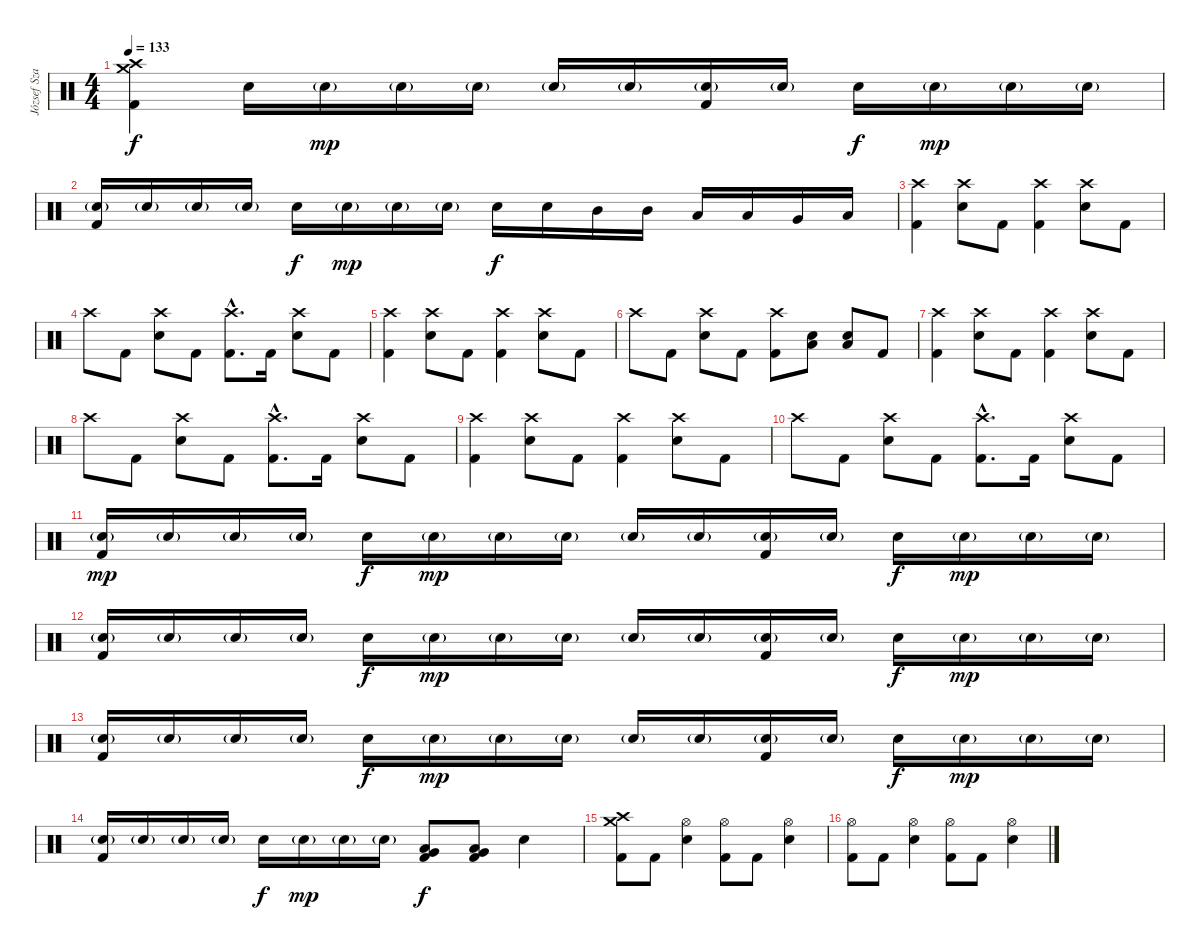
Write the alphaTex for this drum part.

\track ("József Szakács (Drums)" "József Sza") {instrument percussion}
\staff {score}
\articulation defaults
\ts (4 4)
\tempo 133
\clef neutral
\ks c
("Crash medium (hit)" "Crash high (hit)" "Kick (hit) 2").4{dy f} "Snare (hit) 2".16 "Snare (hit) 2"{g}.16{dy mp} "Snare (hit) 2"{g}.16 "Snare (hit) 2"{g}.16 "Snare (hit) 2"{g}.16 "Snare (hit) 2"{g}.16 ("Snare (hit) 2"{g} "Kick (hit) 2").16 "Snare (hit) 2"{g}.16 "Snare (hit) 2".16{dy f} "Snare (hit) 2"{g}.16{dy mp} "Snare (hit) 2"{g}.16 "Snare (hit) 2"{g}.16 |
("Snare (hit) 2"{g} "Kick (hit) 2").16 "Snare (hit) 2"{g}.16 "Snare (hit) 2"{g}.16 "Snare (hit) 2"{g}.16 "Snare (hit) 2".16{dy f} "Snare (hit) 2"{g}.16{dy mp} "Snare (hit) 2"{g}.16 "Snare (hit) 2"{g}.16 "Snare (hit) 2".16{dy f} "Snare (hit) 2".16 "Mid Tom (hit)".16 "Mid Tom (hit)".16 "Low Tom (hit)".16 "Low Tom (hit)".16 "Very Low Tom (hit)".16 "Low Floor Tom (hit)".16 |
("Crash high (hit)" "Kick (hit) 2").4 ("Crash high (hit)" "Snare (hit) 2").8 "Kick (hit) 2".8 ("Crash high (hit)" "Kick (hit) 2").4 ("Crash high (hit)" "Snare (hit) 2").8 "Kick (hit) 2".8 |
"Crash high (hit)".8 "Kick (hit) 2".8 ("Crash high (hit)" "Snare (hit) 2").8 "Kick (hit) 2".8 ("Crash high (hit)"{hac} "Kick (hit) 2"{hac}).8{d} "Kick (hit) 2".16 ("Crash high (hit)" "Snare (hit) 2").8 "Kick (hit) 2".8 |
("Crash high (hit)" "Kick (hit) 2").4 ("Crash high (hit)" "Snare (hit) 2").8 "Kick (hit) 2".8 ("Crash high (hit)" "Kick (hit) 2").4 ("Crash high (hit)" "Snare (hit) 2").8 "Kick (hit) 2".8 |
"Crash high (hit)".8 "Kick (hit) 2".8 ("Crash high (hit)" "Snare (hit) 2").8 "Kick (hit) 2".8 ("Crash high (hit)" "Kick (hit) 2").8 ("Low Floor Tom (hit)" "Snare (hit) 2").8 ("Low Floor Tom (hit)" "Snare (hit) 2").8 "Kick (hit) 2".8 |
("Crash high (hit)" "Kick (hit) 2").4 ("Crash high (hit)" "Snare (hit) 2").8 "Kick (hit) 2".8 ("Crash high (hit)" "Kick (hit) 2").4 ("Crash high (hit)" "Snare (hit) 2").8 "Kick (hit) 2".8 |
"Crash high (hit)".8 "Kick (hit) 2".8 ("Crash high (hit)" "Snare (hit) 2").8 "Kick (hit) 2".8 ("Crash high (hit)"{hac} "Kick (hit) 2"{hac}).8{d} "Kick (hit) 2".16 ("Crash high (hit)" "Snare (hit) 2").8 "Kick (hit) 2".8 |
("Crash high (hit)" "Kick (hit) 2").4 ("Crash high (hit)" "Snare (hit) 2").8 "Kick (hit) 2".8 ("Crash high (hit)" "Kick (hit) 2").4 ("Crash high (hit)" "Snare (hit) 2").8 "Kick (hit) 2".8 |
"Crash high (hit)".8 "Kick (hit) 2".8 ("Crash high (hit)" "Snare (hit) 2").8 "Kick (hit) 2".8 ("Crash high (hit)"{hac} "Kick (hit) 2"{hac}).8{d} "Kick (hit) 2".16 ("Crash high (hit)" "Snare (hit) 2").8 "Kick (hit) 2".8 |
("Snare (hit) 2"{g} "Kick (hit) 2").16{dy mp} "Snare (hit) 2"{g}.16 "Snare (hit) 2"{g}.16 "Snare (hit) 2"{g}.16 "Snare (hit) 2".16{dy f} "Snare (hit) 2"{g}.16{dy mp} "Snare (hit) 2"{g}.16 "Snare (hit) 2"{g}.16 "Snare (hit) 2"{g}.16 "Snare (hit) 2"{g}.16 ("Snare (hit) 2"{g} "Kick (hit) 2").16 "Snare (hit) 2"{g}.16 "Snare (hit) 2".16{dy f} "Snare (hit) 2"{g}.16{dy mp} "Snare (hit) 2"{g}.16 "Snare (hit) 2"{g}.16 |
("Snare (hit) 2"{g} "Kick (hit) 2").16 "Snare (hit) 2"{g}.16 "Snare (hit) 2"{g}.16 "Snare (hit) 2"{g}.16 "Snare (hit) 2".16{dy f} "Snare (hit) 2"{g}.16{dy mp} "Snare (hit) 2"{g}.16 "Snare (hit) 2"{g}.16 "Snare (hit) 2"{g}.16 "Snare (hit) 2"{g}.16 ("Snare (hit) 2"{g} "Kick (hit) 2").16 "Snare (hit) 2"{g}.16 "Snare (hit) 2".16{dy f} "Snare (hit) 2"{g}.16{dy mp} "Snare (hit) 2"{g}.16 "Snare (hit) 2"{g}.16 |
("Snare (hit) 2"{g} "Kick (hit) 2").16 "Snare (hit) 2"{g}.16 "Snare (hit) 2"{g}.16 "Snare (hit) 2"{g}.16 "Snare (hit) 2".16{dy f} "Snare (hit) 2"{g}.16{dy mp} "Snare (hit) 2"{g}.16 "Snare (hit) 2"{g}.16 "Snare (hit) 2"{g}.16 "Snare (hit) 2"{g}.16 ("Snare (hit) 2"{g} "Kick (hit) 2").16 "Snare (hit) 2"{g}.16 "Snare (hit) 2".16{dy f} "Snare (hit) 2"{g}.16{dy mp} "Snare (hit) 2"{g}.16 "Snare (hit) 2"{g}.16 |
("Snare (hit) 2"{g} "Kick (hit) 2").16 "Snare (hit) 2"{g}.16 "Snare (hit) 2"{g}.16 "Snare (hit) 2"{g}.16 "Snare (hit) 2".16{dy f} "Snare (hit) 2"{g}.16{dy mp} "Snare (hit) 2"{g}.16 "Snare (hit) 2"{g}.16 ("Low Tom (hit)" "Very Low Tom (hit)" "Kick (hit) 2").8{dy f} ("Very Low Tom (hit)" "Low Floor Tom (hit)" "Kick (hit) 2").8 "Snare (hit) 2".4 |
("Crash high (hit)" "Crash medium (hit)" "Kick (hit) 2").8 "Kick (hit) 2".8 ("Hi-Hat (open)" "Snare (hit) 2").4 ("Hi-Hat (open)" "Kick (hit) 2").8 "Kick (hit) 2".8 ("Hi-Hat (open)" "Snare (hit) 2").4 |
("Hi-Hat (open)" "Kick (hit) 2").8 "Kick (hit) 2".8 ("Hi-Hat (open)" "Snare (hit) 2").4 ("Hi-Hat (open)" "Kick (hit) 2").8 "Kick (hit) 2".8 ("Hi-Hat (open)" "Snare (hit) 2").4
